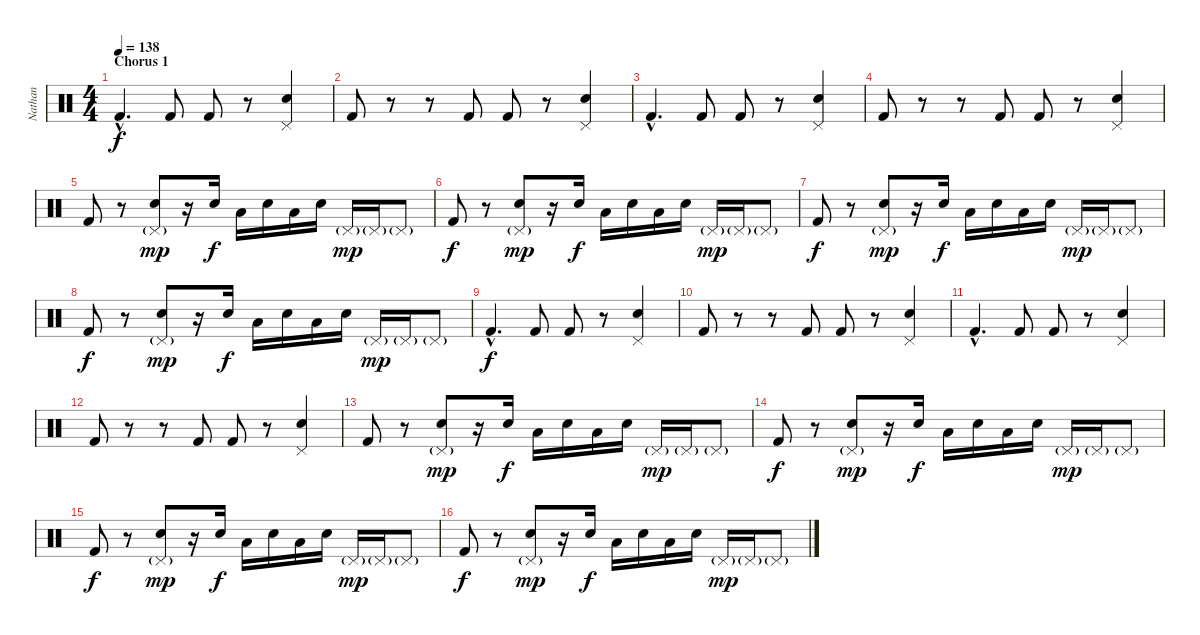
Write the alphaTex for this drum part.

\track ("Nathan" "Nathan") {instrument percussion}
\staff {score}
\articulation defaults
\ts (4 4)
\section ("" "Chorus 1")
\tempo 138
\clef neutral
\ks c "Kick (hit) 2"{hac}.4{d dy f} "Kick (hit) 2".8 "Kick (hit) 2".8
r.8 ("Pedal Hi-Hat (hit)" "Electric Snare (hit)").4 |
"Kick (hit) 2".8 r.8 r.8 "Kick (hit) 2".8 "Kick (hit) 2".8 r.8 ("Pedal Hi-Hat (hit)" "Electric Snare (hit)").4 |
"Kick (hit) 2"{hac}.4{d} "Kick (hit) 2".8 "Kick (hit) 2".8 r.8 ("Pedal Hi-Hat (hit)" "Electric Snare (hit)").4 |
"Kick (hit) 2".8 r.8 r.8 "Kick (hit) 2".8 "Kick (hit) 2".8 r.8 ("Pedal Hi-Hat (hit)" "Electric Snare (hit)").4 |
"Kick (hit) 2".8 r.8 ("Pedal Hi-Hat (hit)"{g} "Electric Snare (hit)").8{dy mp} r.16 "Electric Snare (hit)".16{dy f} "Low Tom (hit)".16 "Electric Snare (hit)".16 "Low Tom (hit)".16 "Electric Snare (hit)".16 "Pedal Hi-Hat (hit)"{g}.16{dy mp} "Pedal Hi-Hat (hit)"{g}.16 "Pedal Hi-Hat (hit)"{g}.8 |
"Kick (hit) 2".8{dy f} r.8 ("Pedal Hi-Hat (hit)"{g} "Electric Snare (hit)").8{dy mp} r.16 "Electric Snare (hit)".16{dy f} "Low Tom (hit)".16 "Electric Snare (hit)".16 "Low Tom (hit)".16 "Electric Snare (hit)".16 "Pedal Hi-Hat (hit)"{g}.16{dy mp} "Pedal Hi-Hat (hit)"{g}.16 "Pedal Hi-Hat (hit)"{g}.8 |
"Kick (hit) 2".8{dy f} r.8 ("Pedal Hi-Hat (hit)"{g} "Electric Snare (hit)").8{dy mp} r.16 "Electric Snare (hit)".16{dy f} "Low Tom (hit)".16 "Electric Snare (hit)".16 "Low Tom (hit)".16 "Electric Snare (hit)".16 "Pedal Hi-Hat (hit)"{g}.16{dy mp} "Pedal Hi-Hat (hit)"{g}.16 "Pedal Hi-Hat (hit)"{g}.8 |
"Kick (hit) 2".8{dy f} r.8 ("Pedal Hi-Hat (hit)"{g} "Electric Snare (hit)").8{dy mp} r.16 "Electric Snare (hit)".16{dy f} "Low Tom (hit)".16 "Electric Snare (hit)".16 "Low Tom (hit)".16 "Electric Snare (hit)".16 "Pedal Hi-Hat (hit)"{g}.16{dy mp} "Pedal Hi-Hat (hit)"{g}.16 "Pedal Hi-Hat (hit)"{g}.8 |
"Kick (hit) 2"{hac}.4{d dy f} "Kick (hit) 2".8 "Kick (hit) 2".8 r.8 ("Pedal Hi-Hat (hit)" "Electric Snare (hit)").4 |
"Kick (hit) 2".8 r.8 r.8 "Kick (hit) 2".8 "Kick (hit) 2".8 r.8 ("Pedal Hi-Hat (hit)" "Electric Snare (hit)").4 |
"Kick (hit) 2"{hac}.4{d} "Kick (hit) 2".8 "Kick (hit) 2".8 r.8 ("Pedal Hi-Hat (hit)" "Electric Snare (hit)").4 |
"Kick (hit) 2".8 r.8 r.8 "Kick (hit) 2".8 "Kick (hit) 2".8 r.8 ("Pedal Hi-Hat (hit)" "Electric Snare (hit)").4 |
"Kick (hit) 2".8 r.8 ("Pedal Hi-Hat (hit)"{g} "Electric Snare (hit)").8{dy mp} r.16 "Electric Snare (hit)".16{dy f} "Low Tom (hit)".16 "Electric Snare (hit)".16 "Low Tom (hit)".16 "Electric Snare (hit)".16 "Pedal Hi-Hat (hit)"{g}.16{dy mp} "Pedal Hi-Hat (hit)"{g}.16 "Pedal Hi-Hat (hit)"{g}.8 |
"Kick (hit) 2".8{dy f} r.8 ("Pedal Hi-Hat (hit)"{g} "Electric Snare (hit)").8{dy mp} r.16 "Electric Snare (hit)".16{dy f} "Low Tom (hit)".16 "Electric Snare (hit)".16 "Low Tom (hit)".16 "Electric Snare (hit)".16 "Pedal Hi-Hat (hit)"{g}.16{dy mp} "Pedal Hi-Hat (hit)"{g}.16 "Pedal Hi-Hat (hit)"{g}.8 |
"Kick (hit) 2".8{dy f} r.8 ("Pedal Hi-Hat (hit)"{g} "Electric Snare (hit)").8{dy mp} r.16 "Electric Snare (hit)".16{dy f} "Low Tom (hit)".16 "Electric Snare (hit)".16 "Low Tom (hit)".16 "Electric Snare (hit)".16 "Pedal Hi-Hat (hit)"{g}.16{dy mp} "Pedal Hi-Hat (hit)"{g}.16 "Pedal Hi-Hat (hit)"{g}.8 |
"Kick (hit) 2".8{dy f} r.8 ("Pedal Hi-Hat (hit)"{g} "Electric Snare (hit)").8{dy mp} r.16 "Electric Snare (hit)".16{dy f} "Low Tom (hit)".16 "Electric Snare (hit)".16 "Low Tom (hit)".16 "Electric Snare (hit)".16 "Pedal Hi-Hat (hit)"{g}.16{dy mp} "Pedal Hi-Hat (hit)"{g}.16 "Pedal Hi-Hat (hit)"{g}.8
